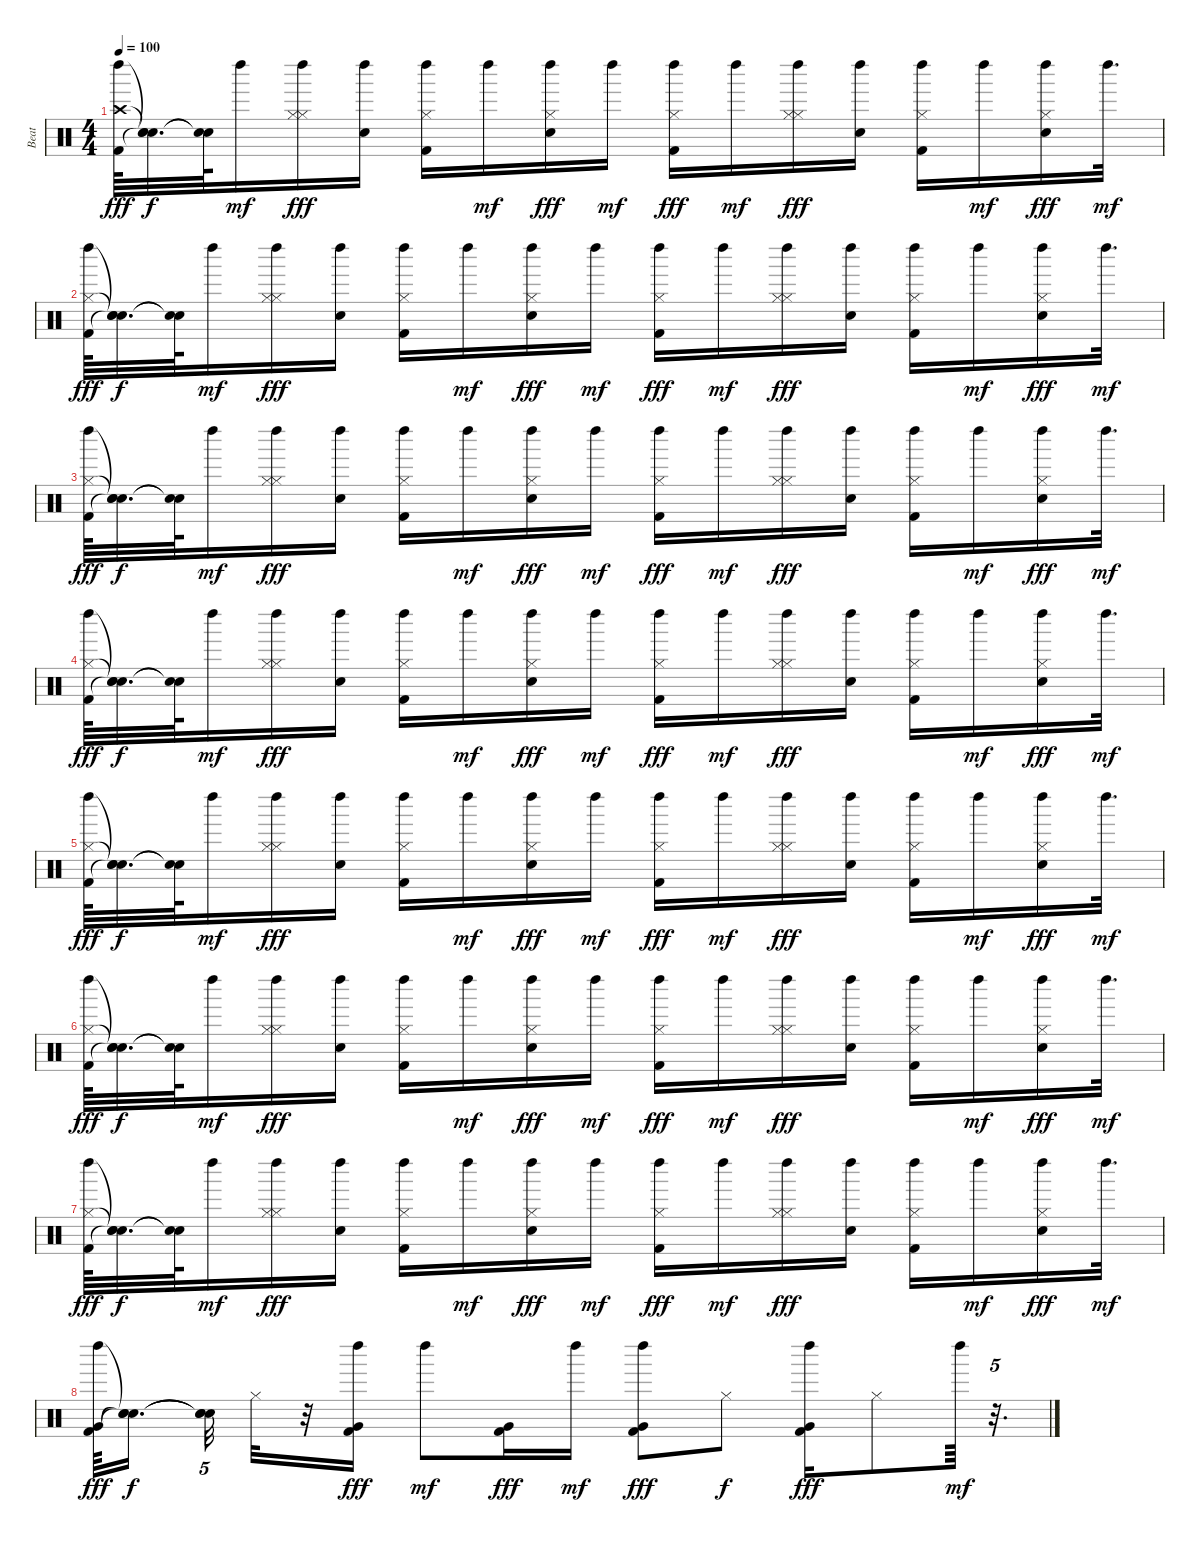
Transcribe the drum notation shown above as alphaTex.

\track ("Beat" "Beat") {instrument percussion}
\staff {score}
\articulation defaults
\ts (4 4)
\tempo 100
\clef neutral
\ks c
("Left Maraca (hit)" "Crash high (hit)" "Kick (hit) 2").64{dy fff} ("Snare (hit)"{t} "Snare (hit)"{t} "Snare (hit)"{t}).32{d dy f} ("Snare (hit)"{t} "Snare (hit)"{t}).64 "Left Maraca (hit)".16{dy mf} ("Hi-Hat (closed)" "Left Maraca (hit)" "Hi-Hat (closed)").16{dy fff} ("Left Maraca (hit)" "Electric Snare (hit)").16 ("Left Maraca (hit)" "Kick (hit) 2" "Hi-Hat (closed)").16 "Left Maraca (hit)".16{dy mf} ("Left Maraca (hit)" "Hi-Hat (closed)" "Electric Snare (hit)").16{dy fff} "Left Maraca (hit)".16{dy mf} ("Left Maraca (hit)" "Hi-Hat (closed)" "Kick (hit) 2").16{dy fff} "Left Maraca (hit)".16{dy mf} ("Hi-Hat (closed)" "Left Maraca (hit)" "Hi-Hat (closed)").16{dy fff} ("Left Maraca (hit)" "Electric Snare (hit)").16 ("Left Maraca (hit)" "Kick (hit) 2" "Hi-Hat (closed)").16 "Left Maraca (hit)".16{dy mf} ("Left Maraca (hit)" "Hi-Hat (closed)" "Electric Snare (hit)").16{dy fff} "Left Maraca (hit)".32{d dy mf} |
("Left Maraca (hit)" "Hi-Hat (closed)" "Kick (hit) 2").64{dy fff} ("Snare (hit)"{t} "Snare (hit)"{t} "Snare (hit)"{t}).32{d dy f} ("Snare (hit)"{t} "Snare (hit)"{t}).64 "Left Maraca (hit)".16{dy mf} ("Hi-Hat (closed)" "Left Maraca (hit)" "Hi-Hat (closed)").16{dy fff} ("Left Maraca (hit)" "Electric Snare (hit)").16 ("Left Maraca (hit)" "Kick (hit) 2" "Hi-Hat (closed)").16 "Left Maraca (hit)".16{dy mf} ("Left Maraca (hit)" "Hi-Hat (closed)" "Electric Snare (hit)").16{dy fff} "Left Maraca (hit)".16{dy mf} ("Left Maraca (hit)" "Hi-Hat (closed)" "Kick (hit) 2").16{dy fff} "Left Maraca (hit)".16{dy mf} ("Hi-Hat (closed)" "Left Maraca (hit)" "Hi-Hat (closed)").16{dy fff} ("Left Maraca (hit)" "Electric Snare (hit)").16 ("Left Maraca (hit)" "Kick (hit) 2" "Hi-Hat (closed)").16 "Left Maraca (hit)".16{dy mf} ("Left Maraca (hit)" "Hi-Hat (closed)" "Electric Snare (hit)").16{dy fff} "Left Maraca (hit)".32{d dy mf} |
("Left Maraca (hit)" "Hi-Hat (closed)" "Kick (hit) 2").64{dy fff} ("Snare (hit)"{t} "Snare (hit)"{t} "Snare (hit)"{t}).32{d dy f} ("Snare (hit)"{t} "Snare (hit)"{t}).64 "Left Maraca (hit)".16{dy mf} ("Hi-Hat (closed)" "Left Maraca (hit)" "Hi-Hat (closed)").16{dy fff} ("Left Maraca (hit)" "Electric Snare (hit)").16 ("Left Maraca (hit)" "Kick (hit) 2" "Hi-Hat (closed)").16 "Left Maraca (hit)".16{dy mf} ("Left Maraca (hit)" "Hi-Hat (closed)" "Electric Snare (hit)").16{dy fff} "Left Maraca (hit)".16{dy mf} ("Left Maraca (hit)" "Hi-Hat (closed)" "Kick (hit) 2").16{dy fff} "Left Maraca (hit)".16{dy mf} ("Hi-Hat (closed)" "Left Maraca (hit)" "Hi-Hat (closed)").16{dy fff} ("Left Maraca (hit)" "Electric Snare (hit)").16 ("Left Maraca (hit)" "Kick (hit) 2" "Hi-Hat (closed)").16 "Left Maraca (hit)".16{dy mf} ("Left Maraca (hit)" "Hi-Hat (closed)" "Electric Snare (hit)").16{dy fff} "Left Maraca (hit)".32{d dy mf} |
("Left Maraca (hit)" "Hi-Hat (closed)" "Kick (hit) 2").64{dy fff} ("Snare (hit)"{t} "Snare (hit)"{t} "Snare (hit)"{t}).32{d dy f} ("Snare (hit)"{t} "Snare (hit)"{t}).64 "Left Maraca (hit)".16{dy mf} ("Hi-Hat (closed)" "Left Maraca (hit)" "Hi-Hat (closed)").16{dy fff} ("Left Maraca (hit)" "Electric Snare (hit)").16 ("Left Maraca (hit)" "Kick (hit) 2" "Hi-Hat (closed)").16 "Left Maraca (hit)".16{dy mf} ("Left Maraca (hit)" "Hi-Hat (closed)" "Electric Snare (hit)").16{dy fff} "Left Maraca (hit)".16{dy mf} ("Left Maraca (hit)" "Hi-Hat (closed)" "Kick (hit) 2").16{dy fff} "Left Maraca (hit)".16{dy mf} ("Hi-Hat (closed)" "Left Maraca (hit)" "Hi-Hat (closed)").16{dy fff} ("Left Maraca (hit)" "Electric Snare (hit)").16 ("Left Maraca (hit)" "Kick (hit) 2" "Hi-Hat (closed)").16 "Left Maraca (hit)".16{dy mf} ("Left Maraca (hit)" "Hi-Hat (closed)" "Electric Snare (hit)").16{dy fff} "Left Maraca (hit)".32{d dy mf} |
("Left Maraca (hit)" "Hi-Hat (closed)" "Kick (hit) 2").64{dy fff} ("Snare (hit)"{t} "Snare (hit)"{t} "Snare (hit)"{t}).32{d dy f} ("Snare (hit)"{t} "Snare (hit)"{t}).64 "Left Maraca (hit)".16{dy mf} ("Hi-Hat (closed)" "Left Maraca (hit)" "Hi-Hat (closed)").16{dy fff} ("Left Maraca (hit)" "Electric Snare (hit)").16 ("Left Maraca (hit)" "Kick (hit) 2" "Hi-Hat (closed)").16 "Left Maraca (hit)".16{dy mf} ("Left Maraca (hit)" "Hi-Hat (closed)" "Electric Snare (hit)").16{dy fff} "Left Maraca (hit)".16{dy mf} ("Left Maraca (hit)" "Hi-Hat (closed)" "Kick (hit) 2").16{dy fff} "Left Maraca (hit)".16{dy mf} ("Left Maraca (hit)" "Hi-Hat (closed)" "Hi-Hat (closed)").16{dy fff} ("Left Maraca (hit)" "Electric Snare (hit)").16 ("Left Maraca (hit)" "Kick (hit) 2" "Hi-Hat (closed)").16 "Left Maraca (hit)".16{dy mf} ("Left Maraca (hit)" "Hi-Hat (closed)" "Electric Snare (hit)").16{dy fff} "Left Maraca (hit)".32{d dy mf} |
("Left Maraca (hit)" "Hi-Hat (closed)" "Kick (hit) 2").64{dy fff} ("Snare (hit)"{t} "Snare (hit)"{t} "Snare (hit)"{t}).32{d dy f} ("Snare (hit)"{t} "Snare (hit)"{t}).64 "Left Maraca (hit)".16{dy mf} ("Hi-Hat (closed)" "Left Maraca (hit)" "Hi-Hat (closed)").16{dy fff} ("Left Maraca (hit)" "Electric Snare (hit)").16 ("Left Maraca (hit)" "Kick (hit) 2" "Hi-Hat (closed)").16 "Left Maraca (hit)".16{dy mf} ("Left Maraca (hit)" "Hi-Hat (closed)" "Electric Snare (hit)").16{dy fff} "Left Maraca (hit)".16{dy mf} ("Left Maraca (hit)" "Hi-Hat (closed)" "Kick (hit) 2").16{dy fff} "Left Maraca (hit)".16{dy mf} ("Hi-Hat (closed)" "Left Maraca (hit)" "Hi-Hat (closed)").16{dy fff} ("Left Maraca (hit)" "Electric Snare (hit)").16 ("Left Maraca (hit)" "Kick (hit) 2" "Hi-Hat (closed)").16 "Left Maraca (hit)".16{dy mf} ("Left Maraca (hit)" "Hi-Hat (closed)" "Electric Snare (hit)").16{dy fff} "Left Maraca (hit)".32{d dy mf} |
("Left Maraca (hit)" "Hi-Hat (closed)" "Kick (hit) 2").64{dy fff} ("Snare (hit)"{t} "Snare (hit)"{t} "Snare (hit)"{t}).32{d dy f} ("Snare (hit)"{t} "Snare (hit)"{t}).64 "Left Maraca (hit)".16{dy mf} ("Hi-Hat (closed)" "Left Maraca (hit)" "Hi-Hat (closed)").16{dy fff} ("Left Maraca (hit)" "Electric Snare (hit)").16 ("Left Maraca (hit)" "Kick (hit) 2" "Hi-Hat (closed)").16 "Left Maraca (hit)".16{dy mf} ("Left Maraca (hit)" "Hi-Hat (closed)" "Electric Snare (hit)").16{dy fff} "Left Maraca (hit)".16{dy mf} ("Left Maraca (hit)" "Hi-Hat (closed)" "Kick (hit) 2").16{dy fff} "Left Maraca (hit)".16{dy mf} ("Hi-Hat (closed)" "Left Maraca (hit)" "Hi-Hat (closed)").16{dy fff} ("Left Maraca (hit)" "Electric Snare (hit)").16 ("Left Maraca (hit)" "Kick (hit) 2" "Hi-Hat (closed)").16 "Left Maraca (hit)".16{dy mf} ("Left Maraca (hit)" "Hi-Hat (closed)" "Electric Snare (hit)").16{dy fff} "Left Maraca (hit)".32{d dy mf} |
("Left Maraca (hit)" "Kick (hit) 2" "Very Low Tom (hit)").64{dy fff} ("Snare (hit)"{t} "Snare (hit)"{t} "Snare (hit)"{t}).16{d dy f beam splitsecondary} ("Snare (hit)"{t} "Snare (hit)"{t} "Snare (hit)"{t}).32{tu (5 4)} "Hi-Hat (closed)".32 r.32 ("Left Maraca (hit)" "Kick (hit) 2" "Very Low Tom (hit)").16{dy fff} "Left Maraca (hit)".8{dy mf} ("Very Low Tom (hit)" "Kick (hit) 2").16{dy fff} "Left Maraca (hit)".16{dy mf} ("Very Low Tom (hit)" "Left Maraca (hit)" "Kick (hit) 2").8{dy fff} "Hi-Hat (closed)".8{dy f} ("Very Low Tom (hit)" "Left Maraca (hit)" "Kick (hit) 2").16{dy fff} "Hi-Hat (closed)".8 "Left Maraca (hit)".64{dy mf} r.32{d tu (5 4)}
